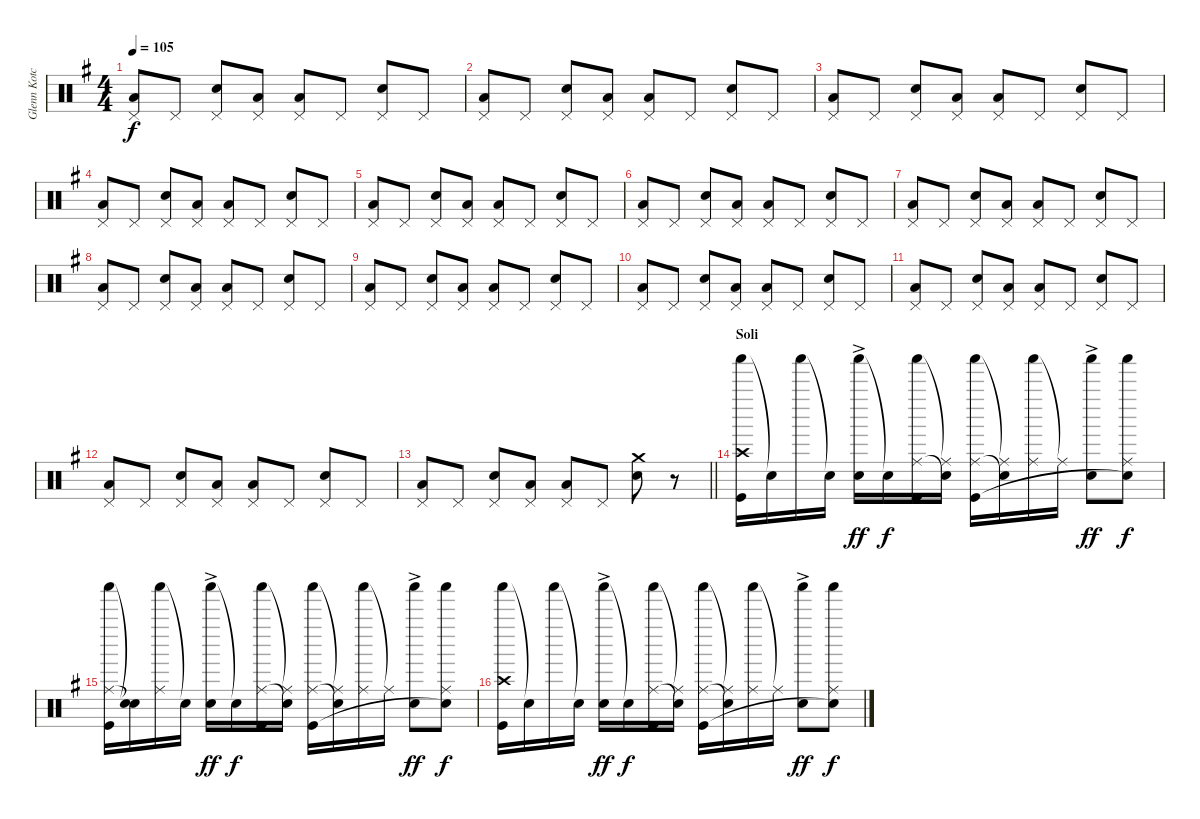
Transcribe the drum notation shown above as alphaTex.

\track ("Glenn Kotche" "Glenn Kotc") {mute instrument percussion}
\staff {score}
\articulation defaults
\ts (4 4)
\tempo 105
\clef neutral
\ks g
("Pedal Hi-Hat (hit)" "Low Floor Tom (hit)").8{dy f} "Pedal Hi-Hat (hit)".8 ("Pedal Hi-Hat (hit)" "Snare (hit) 2").8 ("Pedal Hi-Hat (hit)" "Low Floor Tom (hit)").8 ("Pedal Hi-Hat (hit)" "Low Floor Tom (hit)").8 "Pedal Hi-Hat (hit)".8 ("Pedal Hi-Hat (hit)" "Snare (hit) 2").8 "Pedal Hi-Hat (hit)".8 |
("Pedal Hi-Hat (hit)" "Low Floor Tom (hit)").8 "Pedal Hi-Hat (hit)".8 ("Pedal Hi-Hat (hit)" "Snare (hit) 2").8 ("Pedal Hi-Hat (hit)" "Low Floor Tom (hit)").8 ("Pedal Hi-Hat (hit)" "Low Floor Tom (hit)").8 "Pedal Hi-Hat (hit)".8 ("Pedal Hi-Hat (hit)" "Snare (hit) 2").8 "Pedal Hi-Hat (hit)".8 |
("Pedal Hi-Hat (hit)" "Low Floor Tom (hit)").8 "Pedal Hi-Hat (hit)".8 ("Pedal Hi-Hat (hit)" "Snare (hit) 2").8 ("Pedal Hi-Hat (hit)" "Low Floor Tom (hit)").8 ("Pedal Hi-Hat (hit)" "Low Floor Tom (hit)").8 "Pedal Hi-Hat (hit)".8 ("Pedal Hi-Hat (hit)" "Snare (hit) 2").8 "Pedal Hi-Hat (hit)".8 |
("Pedal Hi-Hat (hit)" "Low Floor Tom (hit)").8 "Pedal Hi-Hat (hit)".8 ("Pedal Hi-Hat (hit)" "Snare (hit) 2").8 ("Pedal Hi-Hat (hit)" "Low Floor Tom (hit)").8 ("Pedal Hi-Hat (hit)" "Low Floor Tom (hit)").8 "Pedal Hi-Hat (hit)".8 ("Pedal Hi-Hat (hit)" "Snare (hit) 2").8 "Pedal Hi-Hat (hit)".8 |
("Pedal Hi-Hat (hit)" "Low Floor Tom (hit)").8 "Pedal Hi-Hat (hit)".8 ("Pedal Hi-Hat (hit)" "Snare (hit) 2").8 ("Pedal Hi-Hat (hit)" "Low Floor Tom (hit)").8 ("Pedal Hi-Hat (hit)" "Low Floor Tom (hit)").8 "Pedal Hi-Hat (hit)".8 ("Pedal Hi-Hat (hit)" "Snare (hit) 2").8 "Pedal Hi-Hat (hit)".8 |
("Pedal Hi-Hat (hit)" "Low Floor Tom (hit)").8 "Pedal Hi-Hat (hit)".8 ("Pedal Hi-Hat (hit)" "Snare (hit) 2").8 ("Pedal Hi-Hat (hit)" "Low Floor Tom (hit)").8 ("Pedal Hi-Hat (hit)" "Low Floor Tom (hit)").8 "Pedal Hi-Hat (hit)".8 ("Pedal Hi-Hat (hit)" "Snare (hit) 2").8 "Pedal Hi-Hat (hit)".8 |
("Pedal Hi-Hat (hit)" "Low Floor Tom (hit)").8 "Pedal Hi-Hat (hit)".8 ("Pedal Hi-Hat (hit)" "Snare (hit) 2").8 ("Pedal Hi-Hat (hit)" "Low Floor Tom (hit)").8 ("Pedal Hi-Hat (hit)" "Low Floor Tom (hit)").8 "Pedal Hi-Hat (hit)".8 ("Pedal Hi-Hat (hit)" "Snare (hit) 2").8 "Pedal Hi-Hat (hit)".8 |
("Pedal Hi-Hat (hit)" "Low Floor Tom (hit)").8 "Pedal Hi-Hat (hit)".8 ("Pedal Hi-Hat (hit)" "Snare (hit) 2").8 ("Pedal Hi-Hat (hit)" "Low Floor Tom (hit)").8 ("Pedal Hi-Hat (hit)" "Low Floor Tom (hit)").8 "Pedal Hi-Hat (hit)".8 ("Pedal Hi-Hat (hit)" "Snare (hit) 2").8 "Pedal Hi-Hat (hit)".8 |
("Pedal Hi-Hat (hit)" "Low Floor Tom (hit)").8 "Pedal Hi-Hat (hit)".8 ("Pedal Hi-Hat (hit)" "Snare (hit) 2").8 ("Pedal Hi-Hat (hit)" "Low Floor Tom (hit)").8 ("Pedal Hi-Hat (hit)" "Low Floor Tom (hit)").8 "Pedal Hi-Hat (hit)".8 ("Pedal Hi-Hat (hit)" "Snare (hit) 2").8 "Pedal Hi-Hat (hit)".8 |
("Pedal Hi-Hat (hit)" "Low Floor Tom (hit)").8 "Pedal Hi-Hat (hit)".8 ("Pedal Hi-Hat (hit)" "Snare (hit) 2").8 ("Pedal Hi-Hat (hit)" "Low Floor Tom (hit)").8 ("Pedal Hi-Hat (hit)" "Low Floor Tom (hit)").8 "Pedal Hi-Hat (hit)".8 ("Pedal Hi-Hat (hit)" "Snare (hit) 2").8 "Pedal Hi-Hat (hit)".8 |
("Pedal Hi-Hat (hit)" "Low Floor Tom (hit)").8 "Pedal Hi-Hat (hit)".8 ("Pedal Hi-Hat (hit)" "Snare (hit) 2").8 ("Pedal Hi-Hat (hit)" "Low Floor Tom (hit)").8 ("Pedal Hi-Hat (hit)" "Low Floor Tom (hit)").8 "Pedal Hi-Hat (hit)".8 ("Pedal Hi-Hat (hit)" "Snare (hit) 2").8 "Pedal Hi-Hat (hit)".8 |
("Pedal Hi-Hat (hit)" "Low Floor Tom (hit)").8 "Pedal Hi-Hat (hit)".8 ("Pedal Hi-Hat (hit)" "Snare (hit) 2").8 ("Pedal Hi-Hat (hit)" "Low Floor Tom (hit)").8 ("Pedal Hi-Hat (hit)" "Low Floor Tom (hit)").8 "Pedal Hi-Hat (hit)".8 ("Pedal Hi-Hat (hit)" "Snare (hit) 2").8 "Pedal Hi-Hat (hit)".8 |
\barLineRight lightlight
("Pedal Hi-Hat (hit)" "Low Floor Tom (hit)").8 "Pedal Hi-Hat (hit)".8 ("Pedal Hi-Hat (hit)" "Snare (hit) 2").8 ("Pedal Hi-Hat (hit)" "Low Floor Tom (hit)").8 ("Pedal Hi-Hat (hit)" "Low Floor Tom (hit)").8 "Pedal Hi-Hat (hit)".8 ("Crash medium (hit)" "Snare (hit) 2").8 r.8 |
\section ("" "Soli")
("Shaker (hit)" "Crash high (hit)" "Kick (hit)").16 "Snare (hit)"{t}.16 "Shaker (hit)".16 "Snare (hit)"{t}.16 ("Shaker (hit)" "Snare (hit) 2"{ac}).16{dy ff} "Snare (hit)"{t}.16{dy f} ("Shaker (hit)" "Ride (middle)" "Kick (hit)").16 ("Ride (middle)"{t} "Snare (hit)"{t}).16 ("Shaker (hit)" "Ride (middle)" "Kick (hit)").16 ("Ride (middle)"{t} "Snare (hit)"{t}).16 ("Shaker (hit)" "Ride (middle)").16 "Ride (middle)"{t}.16 ("Shaker (hit)" "Snare (hit) 2"{ac}).8{dy ff} ("Shaker (hit)" "Ride (middle)" "Snare (hit)"{t}).8{dy f} |
("Shaker (hit)" "Ride (middle)" "Kick (hit)").16 ("Snare (hit)"{t} "Snare (hit)"{t}).16 ("Shaker (hit)" "Ride (middle)").16 "Snare (hit)"{t}.16 ("Shaker (hit)" "Snare (hit) 2"{ac}).16{dy ff} "Snare (hit)"{t}.16{dy f} ("Shaker (hit)" "Ride (middle)" "Kick (hit)").16 ("Ride (middle)"{t} "Snare (hit)"{t}).16 ("Shaker (hit)" "Ride (middle)" "Kick (hit)").16 ("Ride (middle)"{t} "Snare (hit)"{t}).16 ("Shaker (hit)" "Ride (middle)").16 "Ride (middle)"{t}.16 ("Shaker (hit)" "Snare (hit) 2"{ac}).8{dy ff} ("Shaker (hit)" "Ride (middle)" "Snare (hit)"{t}).8{dy f} |
("Shaker (hit)" "Crash high (hit)" "Kick (hit)").16 "Snare (hit)"{t}.16 "Shaker (hit)".16 "Snare (hit)"{t}.16 ("Shaker (hit)" "Snare (hit) 2"{ac}).16{dy ff} "Snare (hit)"{t}.16{dy f} ("Shaker (hit)" "Ride (middle)" "Kick (hit)").16 ("Ride (middle)"{t} "Snare (hit)"{t}).16 ("Shaker (hit)" "Ride (middle)" "Kick (hit)").16 ("Ride (middle)"{t} "Snare (hit)"{t}).16 ("Shaker (hit)" "Ride (middle)").16 "Ride (middle)"{t}.16 ("Shaker (hit)" "Snare (hit) 2"{ac}).8{dy ff} ("Shaker (hit)" "Ride (middle)" "Snare (hit)"{t}).8{dy f}
